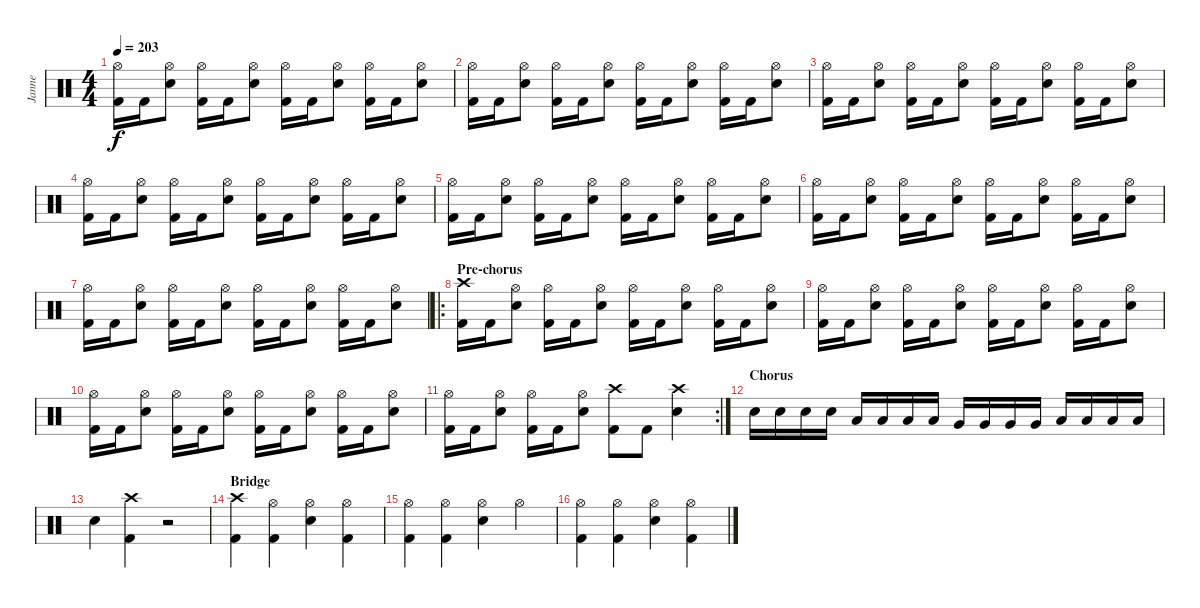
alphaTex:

\track ("Janne" "Janne") {instrument percussion}
\staff {score}
\articulation defaults
\ts (4 4)
\tempo 203
\clef neutral
\ks c
("Hi-Hat (open)" "Kick (hit) 2").16{dy f} "Kick (hit) 2".16 ("Hi-Hat (open)" "Electric Snare (hit)").8 ("Hi-Hat (open)" "Kick (hit) 2").16 "Kick (hit) 2".16 ("Hi-Hat (open)" "Electric Snare (hit)").8 ("Hi-Hat (open)" "Kick (hit) 2").16 "Kick (hit) 2".16 ("Hi-Hat (open)" "Electric Snare (hit)").8 ("Hi-Hat (open)" "Kick (hit) 2").16 "Kick (hit) 2".16 ("Hi-Hat (open)" "Electric Snare (hit)").8 |
("Hi-Hat (open)" "Kick (hit) 2").16 "Kick (hit) 2".16 ("Hi-Hat (open)" "Electric Snare (hit)").8 ("Hi-Hat (open)" "Kick (hit) 2").16 "Kick (hit) 2".16 ("Hi-Hat (open)" "Electric Snare (hit)").8 ("Hi-Hat (open)" "Kick (hit) 2").16 "Kick (hit) 2".16 ("Hi-Hat (open)" "Electric Snare (hit)").8 ("Hi-Hat (open)" "Kick (hit) 2").16 "Kick (hit) 2".16 ("Hi-Hat (open)" "Electric Snare (hit)").8 |
("Hi-Hat (open)" "Kick (hit) 2").16 "Kick (hit) 2".16 ("Hi-Hat (open)" "Electric Snare (hit)").8 ("Hi-Hat (open)" "Kick (hit) 2").16 "Kick (hit) 2".16 ("Hi-Hat (open)" "Electric Snare (hit)").8 ("Hi-Hat (open)" "Kick (hit) 2").16 "Kick (hit) 2".16 ("Hi-Hat (open)" "Electric Snare (hit)").8 ("Hi-Hat (open)" "Kick (hit) 2").16 "Kick (hit) 2".16 ("Hi-Hat (open)" "Electric Snare (hit)").8 |
("Hi-Hat (open)" "Kick (hit) 2").16 "Kick (hit) 2".16 ("Hi-Hat (open)" "Electric Snare (hit)").8 ("Hi-Hat (open)" "Kick (hit) 2").16 "Kick (hit) 2".16 ("Hi-Hat (open)" "Electric Snare (hit)").8 ("Hi-Hat (open)" "Kick (hit) 2").16 "Kick (hit) 2".16 ("Hi-Hat (open)" "Electric Snare (hit)").8 ("Hi-Hat (open)" "Kick (hit) 2").16 "Kick (hit) 2".16 ("Hi-Hat (open)" "Electric Snare (hit)").8 |
("Hi-Hat (open)" "Kick (hit) 2").16 "Kick (hit) 2".16 ("Hi-Hat (open)" "Electric Snare (hit)").8 ("Hi-Hat (open)" "Kick (hit) 2").16 "Kick (hit) 2".16 ("Hi-Hat (open)" "Electric Snare (hit)").8 ("Hi-Hat (open)" "Kick (hit) 2").16 "Kick (hit) 2".16 ("Hi-Hat (open)" "Electric Snare (hit)").8 ("Hi-Hat (open)" "Kick (hit) 2").16 "Kick (hit) 2".16 ("Hi-Hat (open)" "Electric Snare (hit)").8 |
("Hi-Hat (open)" "Kick (hit) 2").16 "Kick (hit) 2".16 ("Hi-Hat (open)" "Electric Snare (hit)").8 ("Hi-Hat (open)" "Kick (hit) 2").16 "Kick (hit) 2".16 ("Hi-Hat (open)" "Electric Snare (hit)").8 ("Hi-Hat (open)" "Kick (hit) 2").16 "Kick (hit) 2".16 ("Hi-Hat (open)" "Electric Snare (hit)").8 ("Hi-Hat (open)" "Kick (hit) 2").16 "Kick (hit) 2".16 ("Hi-Hat (open)" "Electric Snare (hit)").8 |
("Hi-Hat (open)" "Kick (hit) 2").16 "Kick (hit) 2".16 ("Hi-Hat (open)" "Electric Snare (hit)").8 ("Hi-Hat (open)" "Kick (hit) 2").16 "Kick (hit) 2".16 ("Hi-Hat (open)" "Electric Snare (hit)").8 ("Hi-Hat (open)" "Kick (hit) 2").16 "Kick (hit) 2".16 ("Hi-Hat (open)" "Electric Snare (hit)").8 ("Hi-Hat (open)" "Kick (hit) 2").16 "Kick (hit) 2".16 ("Hi-Hat (open)" "Electric Snare (hit)").8 |
\ro
\section ("" "Pre-chorus")
("Crash high (hit)" "Kick (hit) 2").16 "Kick (hit) 2".16 ("Hi-Hat (open)" "Electric Snare (hit)").8 ("Hi-Hat (open)" "Kick (hit) 2").16 "Kick (hit) 2".16 ("Hi-Hat (open)" "Electric Snare (hit)").8 ("Hi-Hat (open)" "Kick (hit) 2").16 "Kick (hit) 2".16 ("Hi-Hat (open)" "Electric Snare (hit)").8 ("Hi-Hat (open)" "Kick (hit) 2").16 "Kick (hit) 2".16 ("Hi-Hat (open)" "Electric Snare (hit)").8 |
("Hi-Hat (open)" "Kick (hit) 2").16 "Kick (hit) 2".16 ("Hi-Hat (open)" "Electric Snare (hit)").8 ("Hi-Hat (open)" "Kick (hit) 2").16 "Kick (hit) 2".16 ("Hi-Hat (open)" "Electric Snare (hit)").8 ("Hi-Hat (open)" "Kick (hit) 2").16 "Kick (hit) 2".16 ("Hi-Hat (open)" "Electric Snare (hit)").8 ("Hi-Hat (open)" "Kick (hit) 2").16 "Kick (hit) 2".16 ("Hi-Hat (open)" "Electric Snare (hit)").8 |
("Hi-Hat (open)" "Kick (hit) 2").16 "Kick (hit) 2".16 ("Hi-Hat (open)" "Electric Snare (hit)").8 ("Hi-Hat (open)" "Kick (hit) 2").16 "Kick (hit) 2".16 ("Hi-Hat (open)" "Electric Snare (hit)").8 ("Hi-Hat (open)" "Kick (hit) 2").16 "Kick (hit) 2".16 ("Hi-Hat (open)" "Electric Snare (hit)").8 ("Hi-Hat (open)" "Kick (hit) 2").16 "Kick (hit) 2".16 ("Hi-Hat (open)" "Electric Snare (hit)").8 |
\rc 2
("Hi-Hat (open)" "Kick (hit) 2").16 "Kick (hit) 2".16 ("Hi-Hat (open)" "Electric Snare (hit)").8 ("Hi-Hat (open)" "Kick (hit) 2").16 "Kick (hit) 2".16 ("Hi-Hat (open)" "Electric Snare (hit)").8 ("Crash high (hit)" "Kick (hit) 2").8 "Kick (hit) 2".8 ("Crash high (hit)" "Electric Snare (hit)").4 |
\section ("" "Chorus")
"Electric Snare (hit)".16 "Electric Snare (hit)".16 "Electric Snare (hit)".16 "Electric Snare (hit)".16 "Low Tom (hit)".16 "Low Tom (hit)".16 "Low Tom (hit)".16 "Low Tom (hit)".16 "Very Low Tom (hit)".16 "Very Low Tom (hit)".16 "Very Low Tom (hit)".16 "Very Low Tom (hit)".16 "Low Floor Tom (hit)".16 "Low Floor Tom (hit)".16 "Low Floor Tom (hit)".16 "Low Floor Tom (hit)".16 |
"Electric Snare (hit)".4 ("Crash high (hit)" "Kick (hit) 2").4 r.2 |
\section ("" "Bridge")
("Crash high (hit)" "Kick (hit) 2").4 ("Hi-Hat (open)" "Kick (hit) 2").4 ("Hi-Hat (open)" "Electric Snare (hit)").4 ("Hi-Hat (open)" "Kick (hit) 2").4 |
("Hi-Hat (open)" "Kick (hit) 2").4 ("Hi-Hat (open)" "Kick (hit) 2").4 ("Hi-Hat (open)" "Electric Snare (hit)").4 "Hi-Hat (open)".4 |
("Hi-Hat (open)" "Kick (hit) 2").4 ("Hi-Hat (open)" "Kick (hit) 2").4 ("Hi-Hat (open)" "Electric Snare (hit)").4 ("Hi-Hat (open)" "Kick (hit) 2").4
